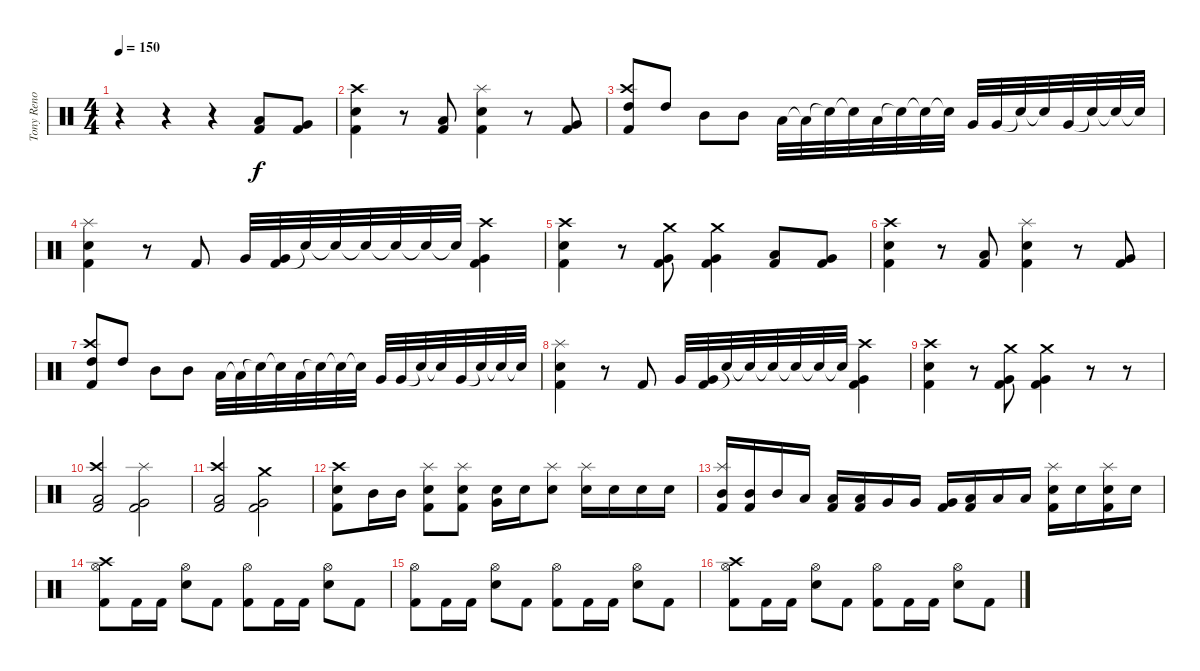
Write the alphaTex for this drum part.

\track ("Tony Reno" "Tony Reno") {instrument percussion}
\staff {score}
\articulation defaults
\ts (4 4)
\tempo 150
\clef neutral
\ks c
r.4{dy f} r.4 r.4 ("Kick (hit) 2" "Low Tom (hit)").8 ("Kick (hit) 2" "Very Low Tom (hit)").8 |
("Kick (hit) 2" "Snare (hit) 2" "Crash high (hit)").4 r.8 ("Kick (hit) 2" "Low Tom (hit)").8 ("Kick (hit) 2" "Snare (hit) 2" "Splash (hit)").4 r.8 ("Kick (hit) 2" "Very Low Tom (hit)").8 |
("Kick (hit) 2" "High Tom (hit)" "Crash high (hit)").8 "High Tom (hit)".8 "Mid Tom (hit)".8 "Mid Tom (hit)".8 "Low Tom (hit)".32 "Low Tom (hit)"{t}.32 "Snare (hit)"{t}.32 "Snare (hit)"{t}.32 "Low Tom (hit)".32 "Snare (hit)"{t}.32 "Snare (hit)"{t}.32 "Snare (hit)"{t}.32 "Very Low Tom (hit)".32 "Very Low Tom (hit)".32 "Snare (hit)"{t}.32 "Snare (hit)"{t}.32 "Very Low Tom (hit)".32 "Snare (hit)"{t}.32 "Snare (hit)"{t}.32 "Snare (hit)"{t}.32 |
("Kick (hit) 2" "Snare (hit) 2" "Splash (hit)").4 r.8 "Kick (hit) 2".8 "Very Low Tom (hit)".32 ("Kick (hit) 2" "Very Low Tom (hit)").32 "Snare (hit)"{t}.32 "Snare (hit)"{t}.32 "Snare (hit) 2"{t}.32 "Snare (hit)"{t}.32 "Snare (hit)"{t}.32 "Snare (hit)"{t}.32 ("Kick (hit) 2" "Very Low Tom (hit)" "Crash high (hit)").4 |
("Kick (hit) 2" "Snare (hit) 2" "Crash high (hit)").4 r.8 ("Kick (hit) 2" "Very Low Tom (hit)" "Crash medium (hit)").8 ("Kick (hit) 2" "Very Low Tom (hit)" "Crash medium (hit)").4 ("Kick (hit) 2" "Low Tom (hit)").8 ("Kick (hit) 2" "Very Low Tom (hit)").8 |
("Kick (hit) 2" "Snare (hit) 2" "Crash high (hit)").4 r.8 ("Kick (hit) 2" "Low Tom (hit)").8 ("Kick (hit) 2" "Snare (hit) 2" "Splash (hit)").4 r.8 ("Kick (hit) 2" "Very Low Tom (hit)").8 |
("Kick (hit) 2" "High Tom (hit)" "Crash high (hit)").8 "High Tom (hit)".8 "Mid Tom (hit)".8 "Mid Tom (hit)".8 "Low Tom (hit)".32 "Low Tom (hit)"{t}.32 "Snare (hit)"{t}.32 "Snare (hit)"{t}.32 "Low Tom (hit)".32 "Snare (hit)"{t}.32 "Snare (hit)"{t}.32 "Snare (hit)"{t}.32 "Very Low Tom (hit)".32 "Very Low Tom (hit)".32 "Snare (hit)"{t}.32 "Snare (hit)"{t}.32 "Very Low Tom (hit)".32 "Snare (hit)"{t}.32 "Snare (hit)"{t}.32 "Snare (hit)"{t}.32 |
("Kick (hit) 2" "Snare (hit) 2" "Splash (hit)").4 r.8 "Kick (hit) 2".8 "Very Low Tom (hit)".32 ("Kick (hit) 2" "Very Low Tom (hit)").32 "Snare (hit)"{t}.32 "Snare (hit)"{t}.32 "Snare (hit) 2"{t}.32 "Snare (hit)"{t}.32 "Snare (hit)"{t}.32 "Snare (hit)"{t}.32 ("Kick (hit) 2" "Very Low Tom (hit)" "Crash high (hit)").4 |
("Kick (hit) 2" "Snare (hit) 2" "Crash high (hit)").4 r.8 ("Kick (hit) 2" "Very Low Tom (hit)" "Crash medium (hit)").8 ("Kick (hit) 2" "Very Low Tom (hit)" "Crash medium (hit)").4 r.8 r.8 |
("Kick (hit) 2" "Low Floor Tom (hit)" "Crash high (hit)").2 ("Kick (hit) 2" "Very Low Tom (hit)" "Splash (hit)").2 |
("Kick (hit) 2" "Low Floor Tom (hit)" "Crash high (hit)").2 ("Kick (hit) 2" "Very Low Tom (hit)" "Crash medium (hit)").2 |
("Kick (hit) 2" "Crash high (hit)" "Snare (hit) 2").8 "Mid Tom (hit)".16 "Mid Tom (hit)".16 ("Kick (hit) 2" "Snare (hit) 2" "Splash (hit)").8 ("Kick (hit) 2" "Snare (hit) 2" "Splash (hit)").8 ("Snare (hit) 2" "Very Low Tom (hit)").16 "Snare (hit) 2".16 ("Snare (hit) 2" "Splash (hit)").8 ("Snare (hit) 2" "Splash (hit)").16 "Snare (hit) 2".16 "Snare (hit) 2".16 "Snare (hit) 2".16 |
("Mid Tom (hit)" "Splash (hit)" "Kick (hit) 2").16 ("Mid Tom (hit)" "Kick (hit) 2").16 "Mid Tom (hit)".16 "Low Tom (hit)".16 ("Low Tom (hit)" "Kick (hit) 2").16 ("Low Tom (hit)" "Kick (hit) 2").16 "Very Low Tom (hit)".16 "Very Low Tom (hit)".16 ("Very Low Tom (hit)" "Kick (hit) 2").16 ("Low Floor Tom (hit)" "Kick (hit) 2").16 "Low Floor Tom (hit)".16 "Low Floor Tom (hit)".16 ("Snare (hit) 2" "Kick (hit) 2" "Splash (hit)").16 "Snare (hit) 2".16 ("Snare (hit) 2" "Kick (hit) 2" "Splash (hit)").16 "Snare (hit) 2".16 |
("Kick (hit) 2" "Hi-Hat (open)" "Crash high (hit)").8 "Kick (hit) 2".16 "Kick (hit) 2".16 ("Snare (hit) 2" "Hi-Hat (open)").8 "Kick (hit) 2".8 ("Kick (hit) 2" "Hi-Hat (open)").8 "Kick (hit) 2".16 "Kick (hit) 2".16 ("Snare (hit) 2" "Hi-Hat (open)").8 "Kick (hit) 2".8 |
("Kick (hit) 2" "Hi-Hat (open)").8 "Kick (hit) 2".16 "Kick (hit) 2".16 ("Snare (hit) 2" "Hi-Hat (open)").8 "Kick (hit) 2".8 ("Kick (hit) 2" "Hi-Hat (open)").8 "Kick (hit) 2".16 "Kick (hit) 2".16 ("Snare (hit) 2" "Hi-Hat (open)").8 "Kick (hit) 2".8 |
("Kick (hit) 2" "Hi-Hat (open)" "Crash high (hit)").8 "Kick (hit) 2".16 "Kick (hit) 2".16 ("Snare (hit) 2" "Hi-Hat (open)").8 "Kick (hit) 2".8 ("Kick (hit) 2" "Hi-Hat (open)").8 "Kick (hit) 2".16 "Kick (hit) 2".16 ("Snare (hit) 2" "Hi-Hat (open)").8 "Kick (hit) 2".8
